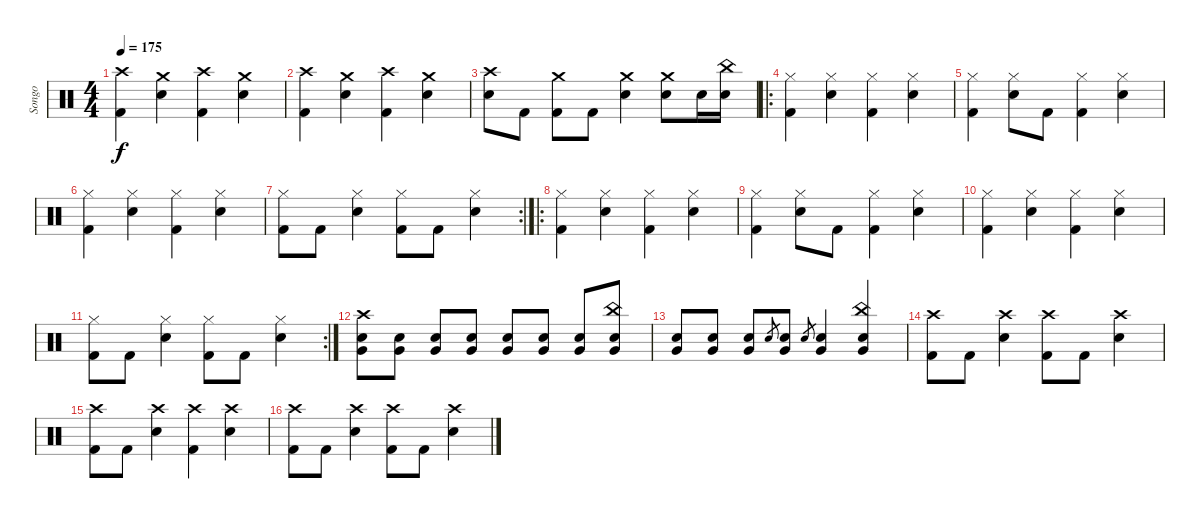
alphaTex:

\track ("Songo" "Songo") {instrument percussion}
\staff {score}
\articulation defaults
\ts (4 4)
\tempo 175
\clef neutral
\ks c
("Crash high (hit)" "Kick (hit) 2").4{dy f} ("Crash medium (hit)" "Electric Snare (hit)").4 ("Crash high (hit)" "Kick (hit) 2").4 ("Crash medium (hit)" "Electric Snare (hit)").4 |
("Crash high (hit)" "Kick (hit) 2").4 ("Crash medium (hit)" "Electric Snare (hit)").4 ("Crash high (hit)" "Kick (hit) 2").4 ("Crash medium (hit)" "Electric Snare (hit)").4 |
("Crash high (hit)" "Electric Snare (hit)").8 "Kick (hit) 2".8 ("Crash medium (hit)" "Kick (hit) 2").8 "Kick (hit) 2".8 ("Crash medium (hit)" "Electric Snare (hit)").4 ("Crash medium (hit)" "Electric Snare (hit)").8 "Electric Snare (hit)".16 ("China (hit)" "Electric Snare (hit)").16 |
\ro
("Hi-Hat (closed)" "Kick (hit) 2").4 ("Hi-Hat (closed)" "Electric Snare (hit)").4 ("Hi-Hat (closed)" "Kick (hit) 2").4 ("Hi-Hat (closed)" "Electric Snare (hit)").4 |
("Hi-Hat (closed)" "Kick (hit) 2").4 ("Hi-Hat (closed)" "Electric Snare (hit)").8 "Kick (hit) 2".8 ("Hi-Hat (closed)" "Kick (hit) 2").4 ("Hi-Hat (closed)" "Electric Snare (hit)").4 |
("Hi-Hat (closed)" "Kick (hit) 2").4 ("Hi-Hat (closed)" "Electric Snare (hit)").4 ("Hi-Hat (closed)" "Kick (hit) 2").4 ("Hi-Hat (closed)" "Electric Snare (hit)").4 |
\rc 2
("Hi-Hat (closed)" "Kick (hit) 2").8 "Kick (hit) 2".8 ("Hi-Hat (closed)" "Electric Snare (hit)").4 ("Hi-Hat (closed)" "Kick (hit) 2").8 "Kick (hit) 2".8 ("Hi-Hat (closed)" "Electric Snare (hit)").4 |
\ro
("Hi-Hat (closed)" "Kick (hit) 2").4 ("Hi-Hat (closed)" "Electric Snare (hit)").4 ("Hi-Hat (closed)" "Kick (hit) 2").4 ("Hi-Hat (closed)" "Electric Snare (hit)").4 |
("Hi-Hat (closed)" "Kick (hit) 2").4 ("Hi-Hat (closed)" "Electric Snare (hit)").8 "Kick (hit) 2".8 ("Hi-Hat (closed)" "Kick (hit) 2").4 ("Hi-Hat (closed)" "Electric Snare (hit)").4 |
("Hi-Hat (closed)" "Kick (hit) 2").4 ("Hi-Hat (closed)" "Electric Snare (hit)").4 ("Hi-Hat (closed)" "Kick (hit) 2").4 ("Hi-Hat (closed)" "Electric Snare (hit)").4 |
\rc 2
("Hi-Hat (closed)" "Kick (hit) 2").8 "Kick (hit) 2".8 ("Hi-Hat (closed)" "Electric Snare (hit)").4 ("Hi-Hat (closed)" "Kick (hit) 2").8 "Kick (hit) 2".8 ("Hi-Hat (closed)" "Electric Snare (hit)").4 |
("Crash high (hit)" "Very Low Tom (hit)" "Electric Snare (hit)").8 ("Very Low Tom (hit)" "Electric Snare (hit)").8 ("Very Low Tom (hit)" "Electric Snare (hit)").8 ("Very Low Tom (hit)" "Electric Snare (hit)").8 ("Very Low Tom (hit)" "Electric Snare (hit)").8 ("Very Low Tom (hit)" "Electric Snare (hit)").8 ("Very Low Tom (hit)" "Electric Snare (hit)").8 ("China (hit)" "Very Low Tom (hit)" "Electric Snare (hit)").8 |
("Very Low Tom (hit)" "Electric Snare (hit)").8 ("Very Low Tom (hit)" "Electric Snare (hit)").8 ("Very Low Tom (hit)" "Electric Snare (hit)").8 "Electric Snare (hit)".8{gr} ("Very Low Tom (hit)" "Electric Snare (hit)").8 "Electric Snare (hit)".8{gr} ("Very Low Tom (hit)" "Electric Snare (hit)").4 ("China (hit)" "Very Low Tom (hit)" "Electric Snare (hit)").4 |
("Crash high (hit)" "Kick (hit) 2").8 "Kick (hit) 2".8 ("Crash high (hit)" "Electric Snare (hit)").4 ("Crash high (hit)" "Kick (hit) 2").8 "Kick (hit) 2".8 ("Crash high (hit)" "Electric Snare (hit)").4 |
("Crash high (hit)" "Kick (hit) 2").8 "Kick (hit) 2".8 ("Crash high (hit)" "Electric Snare (hit)").4 ("Crash high (hit)" "Kick (hit) 2").4 ("Crash high (hit)" "Electric Snare (hit)").4 |
("Crash high (hit)" "Kick (hit) 2").8 "Kick (hit) 2".8 ("Crash high (hit)" "Electric Snare (hit)").4 ("Crash high (hit)" "Kick (hit) 2").8 "Kick (hit) 2".8 ("Crash high (hit)" "Electric Snare (hit)").4
